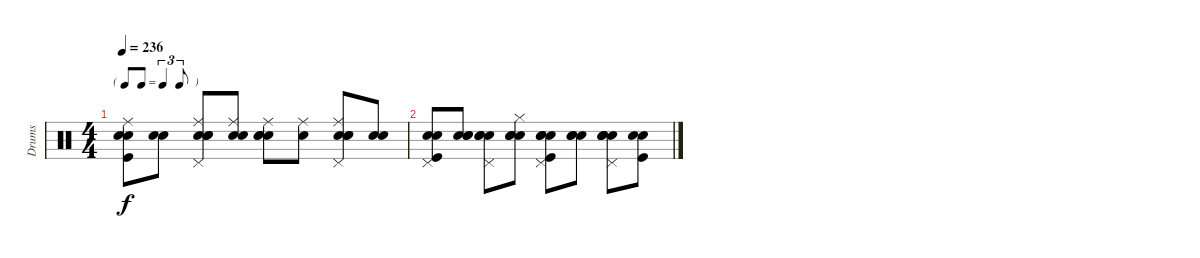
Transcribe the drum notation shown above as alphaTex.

\track ("Drums" "Drums") {instrument percussion}
\staff {score}
\articulation defaults
\ts (4 4)
\tf triplet8th
\tempo 236
\clef neutral
\ks c
("Snare (hit)" "Kick (hit)" "Electric Snare (hit)" "Ride (middle)").8{dy f} ("Snare (hit)" "Electric Snare (hit)").8 ("Snare (hit)" "Snare (hit) 2" "Electric Snare (hit)" "Ride (middle)" "Pedal Hi-Hat (hit)").8 ("Snare (hit)" "Snare (hit) 2" "Ride (middle)").8 ("Snare (hit)" "Snare (hit) 2" "Electric Snare (hit)" "Ride (middle)").8 ("Snare (hit)" "Ride (middle)").8 ("Snare (hit)" "Snare (hit) 2" "Electric Snare (hit)" "Ride (middle)" "Pedal Hi-Hat (hit)").8 ("Snare (hit)" "Snare (hit) 2").8 |
("Snare (hit)" "Kick (hit)" "Electric Snare (hit)" "Pedal Hi-Hat (hit)").8 ("Snare (hit)" "Electric Snare (hit)" "Hand Clap (hit)").8 ("Snare (hit)" "Snare (hit) 2" "Electric Snare (hit)" "Pedal Hi-Hat (hit)").8 ("Snare (hit)" "Snare (hit) 2" "Hi-Hat (closed)" "Hand Clap (hit)").8 ("Snare (hit)" "Kick (hit)" "Electric Snare (hit)" "Pedal Hi-Hat (hit)" "Hand Clap (hit)").8 ("Snare (hit)" "Electric Snare (hit)" "Hand Clap (hit)").8 ("Snare (hit)" "Snare (hit) 2" "Electric Snare (hit)" "Pedal Hi-Hat (hit)" "Hand Clap (hit)").8 ("Snare (hit)" "Kick (hit)" "Hand Clap (hit)").8
